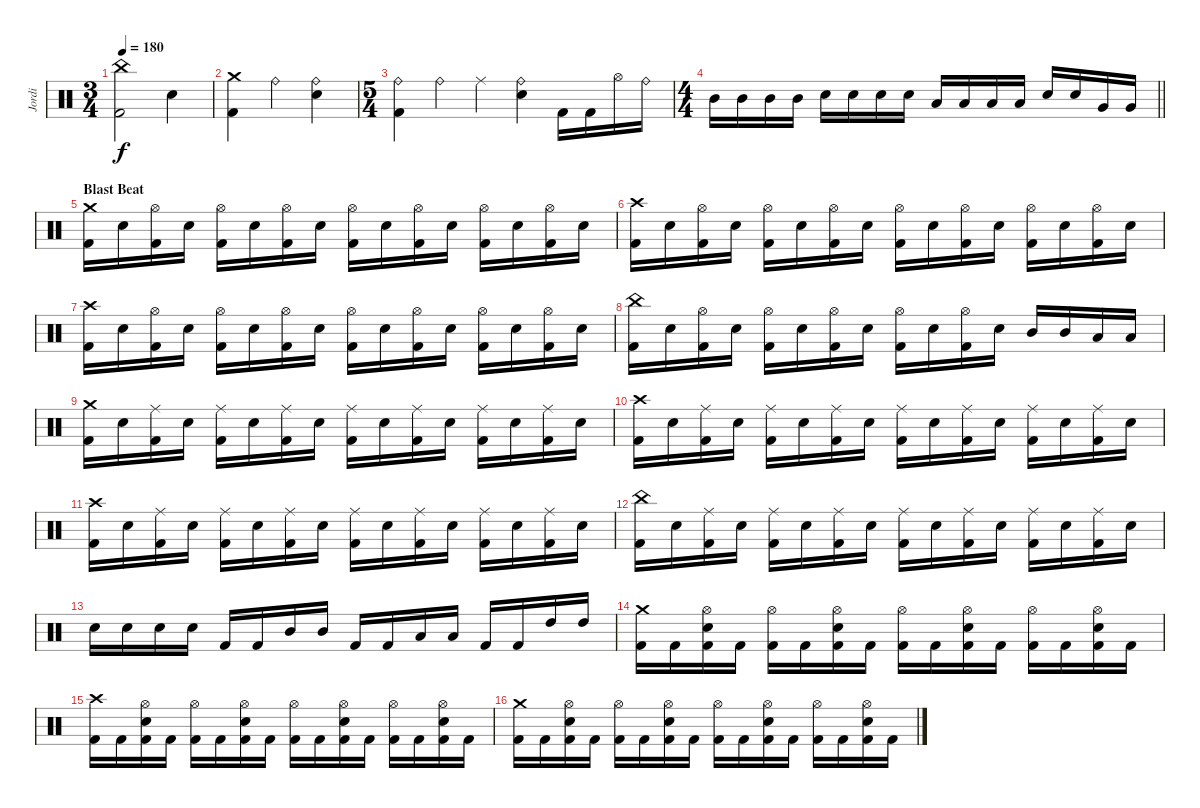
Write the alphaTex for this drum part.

\track ("Jordi" "Jordi") {instrument percussion}
\staff {score}
\articulation defaults
\ts (3 4)
\tempo 180
\clef neutral
\ks c
("China (hit)" "Kick (hit) 2").2{dy f} "Snare (hit) 2".4 |
("Crash medium (hit)" "Kick (hit) 2").4 "Ride (bell)".4 ("Ride (bell)" "Snare (hit) 2").4 |
\ts (5 4)
("Ride (bell)" "Kick (hit) 2").4 "Ride (bell)".4 "Ride (middle)".4 ("Ride (bell)" "Snare (hit) 2").4 "Kick (hit) 2".16 "Kick (hit) 2".16 "Hi-Hat (open)".16 "Ride (bell)".16 |
\ts (4 4)
\barLineRight lightlight "Mid Tom (hit)".16 "Mid Tom (hit)".16 "Mid Tom (hit)".16 "Mid Tom (hit)".16 "Snare (hit) 2".16 "Snare (hit) 2".16 "Snare (hit) 2".16 "Snare (hit) 2".16 "Low Tom (hit)".16 "Low Tom (hit)".16 "Low Tom (hit)".16 "Low Tom (hit)".16 "Snare (hit) 2".16 "Snare (hit) 2".16 "Very Low Tom (hit)".16 "Very Low Tom (hit)".16
|
\section ("" "Blast Beat")
("Crash medium (hit)" "Kick (hit) 2").16 "Snare (hit) 2".16 ("Hi-Hat (open)" "Kick (hit) 2").16 "Snare (hit) 2".16 ("Hi-Hat (open)" "Kick (hit) 2").16 "Snare (hit) 2".16 ("Hi-Hat (open)" "Kick (hit) 2").16 "Snare (hit) 2".16 ("Hi-Hat (open)" "Kick (hit) 2").16 "Snare (hit) 2".16 ("Hi-Hat (open)" "Kick (hit) 2").16 "Snare (hit) 2".16 ("Hi-Hat (open)" "Kick (hit) 2").16 "Snare (hit) 2".16 ("Hi-Hat (open)" "Kick (hit) 2").16 "Snare (hit) 2".16 |
("Crash high (hit)" "Kick (hit) 2").16 "Snare (hit) 2".16 ("Hi-Hat (open)" "Kick (hit) 2").16 "Snare (hit) 2".16 ("Hi-Hat (open)" "Kick (hit) 2").16 "Snare (hit) 2".16 ("Hi-Hat (open)" "Kick (hit) 2").16 "Snare (hit) 2".16 ("Hi-Hat (open)" "Kick (hit) 2").16 "Snare (hit) 2".16 ("Hi-Hat (open)" "Kick (hit) 2").16 "Snare (hit) 2".16 ("Hi-Hat (open)" "Kick (hit) 2").16 "Snare (hit) 2".16 ("Hi-Hat (open)" "Kick (hit) 2").16 "Snare (hit) 2".16 |
("Crash high (hit)" "Kick (hit) 2").16 "Snare (hit) 2".16 ("Hi-Hat (open)" "Kick (hit) 2").16 "Snare (hit) 2".16 ("Hi-Hat (open)" "Kick (hit) 2").16 "Snare (hit) 2".16 ("Hi-Hat (open)" "Kick (hit) 2").16 "Snare (hit) 2".16 ("Hi-Hat (open)" "Kick (hit) 2").16 "Snare (hit) 2".16 ("Hi-Hat (open)" "Kick (hit) 2").16 "Snare (hit) 2".16 ("Hi-Hat (open)" "Kick (hit) 2").16 "Snare (hit) 2".16 ("Hi-Hat (open)" "Kick (hit) 2").16 "Snare (hit) 2".16 |
("China (hit)" "Kick (hit) 2").16 "Snare (hit) 2".16 ("Hi-Hat (open)" "Kick (hit) 2").16 "Snare (hit) 2".16 ("Hi-Hat (open)" "Kick (hit) 2").16 "Snare (hit) 2".16 ("Hi-Hat (open)" "Kick (hit) 2").16 "Snare (hit) 2".16 ("Hi-Hat (open)" "Kick (hit) 2").16 "Snare (hit) 2".16 ("Hi-Hat (open)" "Kick (hit) 2").16 "Snare (hit) 2".16 "Mid Tom (hit)".16 "Mid Tom (hit)".16 "Low Tom (hit)".16 "Low Tom (hit)".16 |
("Crash medium (hit)" "Kick (hit) 2").16 "Snare (hit) 2".16 ("Ride (middle)" "Kick (hit) 2").16 "Snare (hit) 2".16 ("Ride (middle)" "Kick (hit) 2").16 "Snare (hit) 2".16 ("Ride (middle)" "Kick (hit) 2").16 "Snare (hit) 2".16 ("Ride (middle)" "Kick (hit) 2").16 "Snare (hit) 2".16 ("Ride (middle)" "Kick (hit) 2").16 "Snare (hit) 2".16 ("Ride (middle)" "Kick (hit) 2").16 "Snare (hit) 2".16 ("Ride (middle)" "Kick (hit) 2").16 "Snare (hit) 2".16 |
("Crash high (hit)" "Kick (hit) 2").16 "Snare (hit) 2".16 ("Ride (middle)" "Kick (hit) 2").16 "Snare (hit) 2".16 ("Ride (middle)" "Kick (hit) 2").16 "Snare (hit) 2".16 ("Ride (middle)" "Kick (hit) 2").16 "Snare (hit) 2".16 ("Ride (middle)" "Kick (hit) 2").16 "Snare (hit) 2".16 ("Ride (middle)" "Kick (hit) 2").16 "Snare (hit) 2".16 ("Ride (middle)" "Kick (hit) 2").16 "Snare (hit) 2".16 ("Ride (middle)" "Kick (hit) 2").16 "Snare (hit) 2".16 |
("Crash high (hit)" "Kick (hit) 2").16 "Snare (hit) 2".16 ("Ride (middle)" "Kick (hit) 2").16 "Snare (hit) 2".16 ("Ride (middle)" "Kick (hit) 2").16 "Snare (hit) 2".16 ("Ride (middle)" "Kick (hit) 2").16 "Snare (hit) 2".16 ("Ride (middle)" "Kick (hit) 2").16 "Snare (hit) 2".16 ("Ride (middle)" "Kick (hit) 2").16 "Snare (hit) 2".16 ("Ride (middle)" "Kick (hit) 2").16 "Snare (hit) 2".16 ("Ride (middle)" "Kick (hit) 2").16 "Snare (hit) 2".16 |
("China (hit)" "Kick (hit) 2").16 "Snare (hit) 2".16 ("Ride (middle)" "Kick (hit) 2").16 "Snare (hit) 2".16 ("Ride (middle)" "Kick (hit) 2").16 "Snare (hit) 2".16 ("Ride (middle)" "Kick (hit) 2").16 "Snare (hit) 2".16 ("Ride (middle)" "Kick (hit) 2").16 "Snare (hit) 2".16 ("Ride (middle)" "Kick (hit) 2").16 "Snare (hit) 2".16 ("Ride (middle)" "Kick (hit) 2").16 "Snare (hit) 2".16 ("Ride (middle)" "Kick (hit) 2").16 "Snare (hit) 2".16 |
"Snare (hit) 2".16 "Snare (hit) 2".16 "Snare (hit) 2".16 "Snare (hit) 2".16 "Kick (hit) 2".16 "Kick (hit) 2".16 "Mid Tom (hit)".16 "Mid Tom (hit)".16 "Kick (hit) 2".16 "Kick (hit) 2".16 "Low Tom (hit)".16 "Low Tom (hit)".16 "Kick (hit) 2".16 "Kick (hit) 2".16 "High Tom (hit)".16 "High Tom (hit)".16 |
("Crash medium (hit)" "Kick (hit) 2").16 "Kick (hit) 2".16 ("Hi-Hat (open)" "Snare (hit) 2" "Kick (hit) 2").16 "Kick (hit) 2".16 ("Hi-Hat (open)" "Kick (hit) 2").16 "Kick (hit) 2".16 ("Hi-Hat (open)" "Snare (hit) 2" "Kick (hit) 2").16 "Kick (hit) 2".16 ("Hi-Hat (open)" "Kick (hit) 2").16 "Kick (hit) 2".16 ("Hi-Hat (open)" "Snare (hit) 2" "Kick (hit) 2").16 "Kick (hit) 2".16 ("Hi-Hat (open)" "Kick (hit) 2").16 "Kick (hit) 2".16 ("Hi-Hat (open)" "Snare (hit) 2" "Kick (hit) 2").16 "Kick (hit) 2".16 |
("Crash high (hit)" "Kick (hit) 2").16 "Kick (hit) 2".16 ("Hi-Hat (open)" "Snare (hit) 2" "Kick (hit) 2").16 "Kick (hit) 2".16 ("Hi-Hat (open)" "Kick (hit) 2").16 "Kick (hit) 2".16 ("Hi-Hat (open)" "Snare (hit) 2" "Kick (hit) 2").16 "Kick (hit) 2".16 ("Hi-Hat (open)" "Kick (hit) 2").16 "Kick (hit) 2".16 ("Hi-Hat (open)" "Snare (hit) 2" "Kick (hit) 2").16 "Kick (hit) 2".16 ("Hi-Hat (open)" "Kick (hit) 2").16 "Kick (hit) 2".16 ("Hi-Hat (open)" "Snare (hit) 2" "Kick (hit) 2").16 "Kick (hit) 2".16 |
("Crash medium (hit)" "Kick (hit) 2").16 "Kick (hit) 2".16 ("Hi-Hat (open)" "Snare (hit) 2" "Kick (hit) 2").16 "Kick (hit) 2".16 ("Hi-Hat (open)" "Kick (hit) 2").16 "Kick (hit) 2".16 ("Hi-Hat (open)" "Snare (hit) 2" "Kick (hit) 2").16 "Kick (hit) 2".16 ("Hi-Hat (open)" "Kick (hit) 2").16 "Kick (hit) 2".16 ("Hi-Hat (open)" "Snare (hit) 2" "Kick (hit) 2").16 "Kick (hit) 2".16 ("Hi-Hat (open)" "Kick (hit) 2").16 "Kick (hit) 2".16 ("Hi-Hat (open)" "Snare (hit) 2" "Kick (hit) 2").16 "Kick (hit) 2".16
